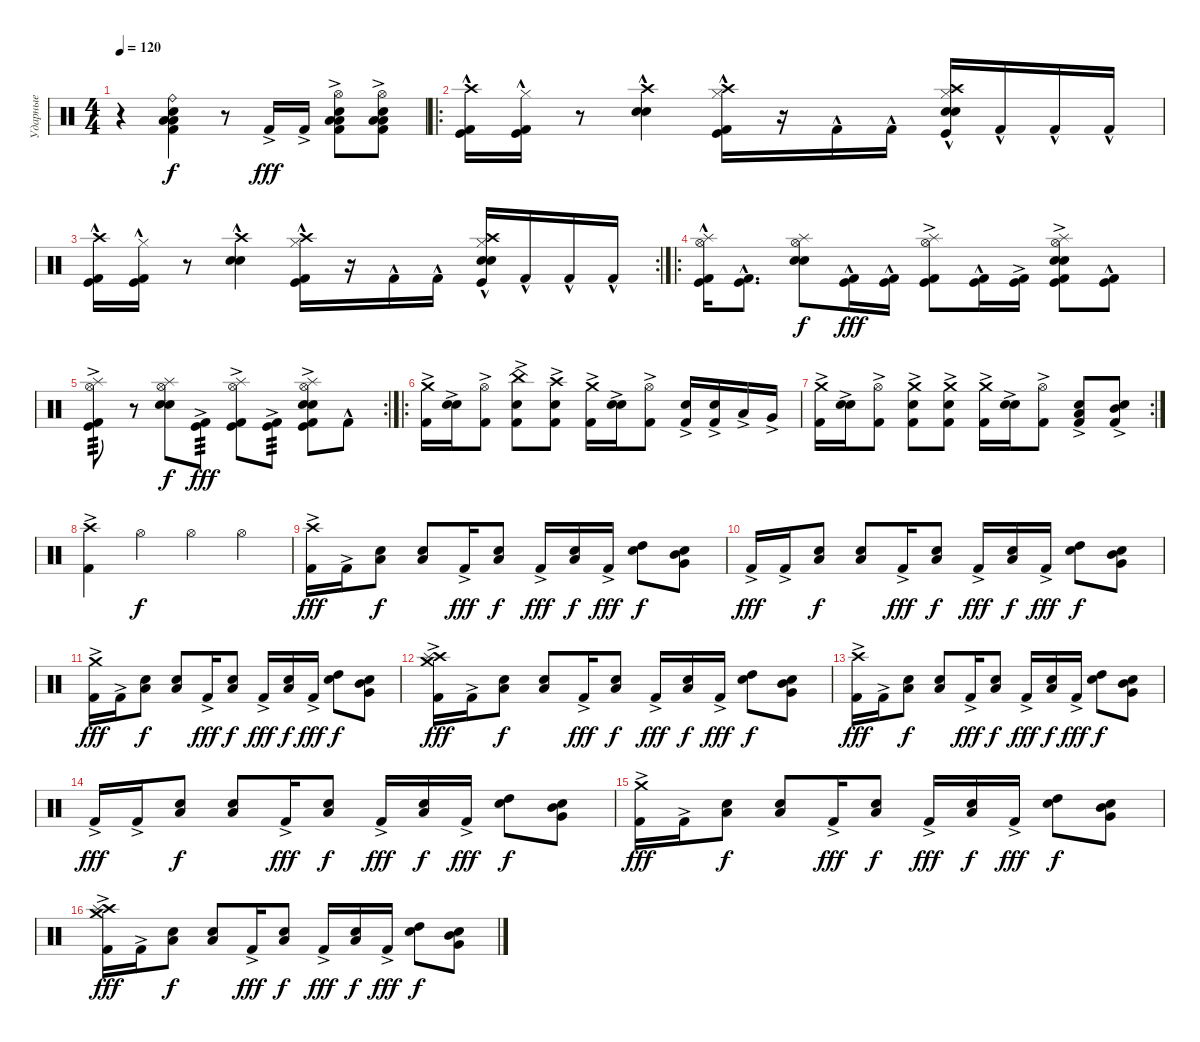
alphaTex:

\track ("Ударные" "Ударные") {instrument percussion}
\staff {score}
\articulation defaults
\ts (4 4)
\tempo 120
\clef neutral
\ks c
r.4{dy f} ("Ride (bell)" "Low Floor Tom (hit)" "Low Tom (hit)" "Snare (hit) 2" "Kick (hit) 2").4 r.8 "Kick (hit) 2"{ac}.16{dy fff} "Kick (hit) 2"{ac}.16 ("Hi-Hat (open)" "Low Floor Tom (hit)" "Low Tom (hit)" "Snare (hit) 2" "Kick (hit) 2"{ac}).8 ("Hi-Hat (open)" "Low Floor Tom (hit)" "Low Tom (hit)" "Snare (hit) 2" "Kick (hit) 2"{ac}).8 |
\ro
("Crash high (hit)" "Kick (hit)" "Kick (hit) 2"{hac}).16 ("Kick (hit)" "Hi-Hat (closed)" "Kick (hit) 2"{hac}).16 r.8 ("Crash high (hit)" "Electric Snare (hit)"{hac} "Snare (hit) 2"{hac}).4 ("Crash high (hit)" "Hi-Hat (closed)" "Kick (hit)" "Kick (hit) 2"{hac}).16 r.16 "Kick (hit) 2"{hac}.16 "Kick (hit) 2"{hac}.16 ("Crash high (hit)" "Hi-Hat (closed)" "Electric Snare (hit)"{hac} "Snare (hit) 2"{hac} "Kick (hit)"{hac}).16 "Kick (hit) 2"{hac}.16 "Kick (hit) 2"{hac}.16 "Kick (hit) 2"{hac}.16 |
\rc 2
("Crash high (hit)" "Kick (hit)" "Kick (hit) 2"{hac}).16 ("Kick (hit)" "Hi-Hat (closed)" "Kick (hit) 2"{hac}).16 r.8 ("Crash high (hit)" "Electric Snare (hit)"{hac} "Snare (hit) 2"{hac}).4 ("Crash high (hit)" "Hi-Hat (closed)" "Kick (hit)" "Kick (hit) 2"{hac}).16 r.16 "Kick (hit) 2"{hac}.16 "Kick (hit) 2"{hac}.16 ("Crash high (hit)" "Hi-Hat (closed)" "Electric Snare (hit)"{hac} "Snare (hit) 2"{hac} "Kick (hit)"{hac}).16 "Kick (hit) 2"{hac}.16 "Kick (hit) 2"{hac}.16 "Kick (hit) 2"{hac}.16 |
\ro
("Hi-Hat (open)" "Splash (hit)" "Kick (hit)"{hac} "Kick (hit) 2"{hac}).16 ("Kick (hit)"{hac} "Kick (hit) 2"{hac}).8{d} ("Hi-Hat (open)" "Splash (hit)" "Snare (hit) 2" "Electric Snare (hit)").8{dy f} ("Kick (hit)"{hac} "Kick (hit) 2"{hac}).16{dy fff} ("Kick (hit)"{hac} "Kick (hit) 2"{hac}).16 ("Hi-Hat (open)" "Splash (hit)" "Kick (hit)" "Kick (hit) 2"{ac}).8 ("Kick (hit) 2"{hac} "Kick (hit)"{hac}).16 ("Kick (hit)" "Kick (hit) 2"{ac}).16 ("Hi-Hat (open)" "Splash (hit)" "Snare (hit) 2" "Electric Snare (hit)" "Kick (hit)" "Kick (hit) 2"{ac}).8 ("Kick (hit)"{hac} "Kick (hit) 2"{hac}).8 |
\rc 2
("Hi-Hat (open)" "Splash (hit)" "Kick (hit)" "Kick (hit) 2"{ac}).8{tp 3} r.8 ("Hi-Hat (open)" "Splash (hit)" "Snare (hit) 2" "Electric Snare (hit)").8{dy f} ("Kick (hit)" "Kick (hit) 2"{ac}).8{tp 3 dy fff} ("Hi-Hat (open)" "Splash (hit)" "Kick (hit)" "Kick (hit) 2"{ac}).8 ("Kick (hit)" "Kick (hit) 2"{ac}).8{tp 3} ("Hi-Hat (open)" "Splash (hit)" "Snare (hit) 2" "Electric Snare (hit)" "Kick (hit)" "Kick (hit) 2"{ac}).8 "Kick (hit) 2"{hac}.8 |
\ro
("Crash medium (hit)"{ac} "Kick (hit) 2"{ac}).16 ("Snare (hit) 2" "Electric Snare (hit)"{ac}).16 ("Hi-Hat (open)" "Kick (hit) 2"{ac}).8 ("China (hit)"{ac} "Electric Snare (hit)"{ac} "Kick (hit) 2"{ac}).8 ("Crash high (hit)"{ac} "Electric Snare (hit)"{ac} "Kick (hit) 2"{ac}).8 ("Crash medium (hit)" "Kick (hit) 2"{ac}).16 ("Snare (hit) 2" "Electric Snare (hit)"{ac}).16 ("Hi-Hat (open)" "Kick (hit) 2"{ac}).8 ("Electric Snare (hit)"{ac} "Kick (hit) 2"{ac}).16 ("Electric Snare (hit)"{ac} "Kick (hit) 2"{ac}).16 "Low Tom (hit)"{ac}.16 "Very Low Tom (hit)"{ac}.16 |
\rc 2
("Crash medium (hit)"{ac} "Kick (hit) 2"{ac}).16 ("Snare (hit) 2" "Electric Snare (hit)"{ac}).16 ("Hi-Hat (open)" "Kick (hit) 2"{ac}).8 ("Crash medium (hit)"{ac} "Electric Snare (hit)"{ac} "Kick (hit) 2"{ac}).8 ("Crash medium (hit)"{ac} "Electric Snare (hit)"{ac} "Kick (hit) 2"{ac}).8 ("Crash medium (hit)"{ac} "Kick (hit) 2"{ac}).16 ("Snare (hit) 2" "Electric Snare (hit)"{ac}).16 ("Hi-Hat (open)" "Kick (hit) 2"{ac}).8 ("Low Tom (hit)"{ac} "Electric Snare (hit)"{ac} "Kick (hit) 2"{ac}).8 ("Mid Tom (hit)"{ac} "Electric Snare (hit)"{ac} "Kick (hit) 2"{ac}).8 |
("Crash high (hit)" "Kick (hit) 2"{ac}).4 "Hi-Hat (open)".4{dy f} "Hi-Hat (open)".4 "Hi-Hat (open)".4 |
("Crash high (hit)" "Kick (hit) 2"{ac}).16{dy fff} "Kick (hit) 2"{ac}.16 ("Low Floor Tom (hit)" "Electric Snare (hit)").8{dy f} ("Low Floor Tom (hit)" "Electric Snare (hit)").8 "Kick (hit) 2"{ac}.16{dy fff} ("Low Floor Tom (hit)" "Electric Snare (hit)").8{dy f} "Kick (hit) 2"{ac}.16{dy fff} ("Low Floor Tom (hit)" "Electric Snare (hit)").16{dy f} "Kick (hit) 2"{ac}.16{dy fff} ("High Tom (hit)" "Electric Snare (hit)").8{dy f} ("Very Low Tom (hit)" "Mid Tom (hit)" "Electric Snare (hit)").8 |
"Kick (hit) 2"{ac}.16{dy fff} "Kick (hit) 2"{ac}.16 ("Low Floor Tom (hit)" "Electric Snare (hit)").8{dy f} ("Low Floor Tom (hit)" "Electric Snare (hit)").8 "Kick (hit) 2"{ac}.16{dy fff} ("Low Floor Tom (hit)" "Electric Snare (hit)").8{dy f} "Kick (hit) 2"{ac}.16{dy fff} ("Low Floor Tom (hit)" "Electric Snare (hit)").16{dy f} "Kick (hit) 2"{ac}.16{dy fff} ("High Tom (hit)" "Electric Snare (hit)").8{dy f} ("Very Low Tom (hit)" "Mid Tom (hit)" "Electric Snare (hit)").8 |
("Crash medium (hit)" "Kick (hit) 2"{ac}).16{dy fff} "Kick (hit) 2"{ac}.16 ("Low Floor Tom (hit)" "Electric Snare (hit)").8{dy f} ("Low Floor Tom (hit)" "Electric Snare (hit)").8 "Kick (hit) 2"{ac}.16{dy fff} ("Low Floor Tom (hit)" "Electric Snare (hit)").8{dy f} "Kick (hit) 2"{ac}.16{dy fff} ("Low Floor Tom (hit)" "Electric Snare (hit)").16{dy f} "Kick (hit) 2"{ac}.16{dy fff} ("High Tom (hit)" "Electric Snare (hit)").8{dy f} ("Very Low Tom (hit)" "Mid Tom (hit)" "Electric Snare (hit)").8 |
("Crash high (hit)" "Crash medium (hit)" "Splash (hit)" "Kick (hit) 2"{ac}).16{dy fff} "Kick (hit) 2"{ac}.16 ("Low Floor Tom (hit)" "Electric Snare (hit)").8{dy f} ("Low Floor Tom (hit)" "Electric Snare (hit)").8 "Kick (hit) 2"{ac}.16{dy fff} ("Low Floor Tom (hit)" "Electric Snare (hit)").8{dy f} "Kick (hit) 2"{ac}.16{dy fff} ("Low Floor Tom (hit)" "Electric Snare (hit)").16{dy f} "Kick (hit) 2"{ac}.16{dy fff} ("High Tom (hit)" "Electric Snare (hit)").8{dy f} ("Very Low Tom (hit)" "Mid Tom (hit)" "Electric Snare (hit)").8 |
("Crash high (hit)" "Kick (hit) 2"{ac}).16{dy fff} "Kick (hit) 2"{ac}.16 ("Low Floor Tom (hit)" "Electric Snare (hit)").8{dy f} ("Low Floor Tom (hit)" "Electric Snare (hit)").8 "Kick (hit) 2"{ac}.16{dy fff} ("Low Floor Tom (hit)" "Electric Snare (hit)").8{dy f} "Kick (hit) 2"{ac}.16{dy fff} ("Low Floor Tom (hit)" "Electric Snare (hit)").16{dy f} "Kick (hit) 2"{ac}.16{dy fff} ("High Tom (hit)" "Electric Snare (hit)").8{dy f} ("Very Low Tom (hit)" "Mid Tom (hit)" "Electric Snare (hit)").8 |
"Kick (hit) 2"{ac}.16{dy fff} "Kick (hit) 2"{ac}.16 ("Low Floor Tom (hit)" "Electric Snare (hit)").8{dy f} ("Low Floor Tom (hit)" "Electric Snare (hit)").8 "Kick (hit) 2"{ac}.16{dy fff} ("Low Floor Tom (hit)" "Electric Snare (hit)").8{dy f} "Kick (hit) 2"{ac}.16{dy fff} ("Low Floor Tom (hit)" "Electric Snare (hit)").16{dy f} "Kick (hit) 2"{ac}.16{dy fff} ("High Tom (hit)" "Electric Snare (hit)").8{dy f} ("Very Low Tom (hit)" "Mid Tom (hit)" "Electric Snare (hit)").8 |
("Crash medium (hit)" "Kick (hit) 2"{ac}).16{dy fff} "Kick (hit) 2"{ac}.16 ("Low Floor Tom (hit)" "Electric Snare (hit)").8{dy f} ("Low Floor Tom (hit)" "Electric Snare (hit)").8 "Kick (hit) 2"{ac}.16{dy fff} ("Low Floor Tom (hit)" "Electric Snare (hit)").8{dy f} "Kick (hit) 2"{ac}.16{dy fff} ("Low Floor Tom (hit)" "Electric Snare (hit)").16{dy f} "Kick (hit) 2"{ac}.16{dy fff} ("High Tom (hit)" "Electric Snare (hit)").8{dy f} ("Very Low Tom (hit)" "Mid Tom (hit)" "Electric Snare (hit)").8 |
("Crash high (hit)" "Crash medium (hit)" "Splash (hit)" "Kick (hit) 2"{ac}).16{dy fff} "Kick (hit) 2"{ac}.16 ("Low Floor Tom (hit)" "Electric Snare (hit)").8{dy f} ("Low Floor Tom (hit)" "Electric Snare (hit)").8 "Kick (hit) 2"{ac}.16{dy fff} ("Low Floor Tom (hit)" "Electric Snare (hit)").8{dy f} "Kick (hit) 2"{ac}.16{dy fff} ("Low Floor Tom (hit)" "Electric Snare (hit)").16{dy f} "Kick (hit) 2"{ac}.16{dy fff} ("High Tom (hit)" "Electric Snare (hit)").8{dy f} ("Very Low Tom (hit)" "Mid Tom (hit)" "Electric Snare (hit)").8
